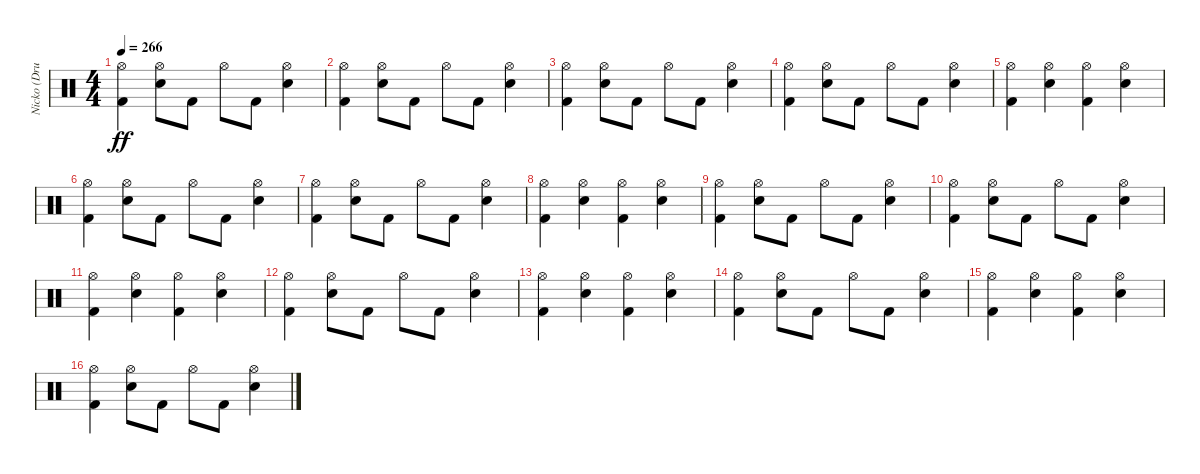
\track ("Nicko (Drums)" "Nicko (Dru") {instrument percussion}
\staff {score}
\articulation defaults
\ts (4 4)
\tempo 266
\clef neutral
\ks c
("Kick (hit) 2" "Hi-Hat (open)").4{dy ff} ("Snare (hit) 2" "Hi-Hat (open)").8 "Kick (hit) 2".8 "Hi-Hat (open)".8 "Kick (hit) 2".8 ("Snare (hit) 2" "Hi-Hat (open)").4 |
("Kick (hit) 2" "Hi-Hat (open)").4 ("Snare (hit) 2" "Hi-Hat (open)").8 "Kick (hit) 2".8 "Hi-Hat (open)".8 "Kick (hit) 2".8 ("Snare (hit) 2" "Hi-Hat (open)").4 |
("Kick (hit) 2" "Hi-Hat (open)").4 ("Snare (hit) 2" "Hi-Hat (open)").8 "Kick (hit) 2".8 "Hi-Hat (open)".8 "Kick (hit) 2".8 ("Snare (hit) 2" "Hi-Hat (open)").4 |
("Kick (hit) 2" "Hi-Hat (open)").4 ("Snare (hit) 2" "Hi-Hat (open)").8 "Kick (hit) 2".8 "Hi-Hat (open)".8 "Kick (hit) 2".8 ("Snare (hit) 2" "Hi-Hat (open)").4 |
("Kick (hit) 2" "Hi-Hat (open)").4 ("Snare (hit) 2" "Hi-Hat (open)").4 ("Kick (hit) 2" "Hi-Hat (open)").4 ("Snare (hit) 2" "Hi-Hat (open)").4 |
("Kick (hit) 2" "Hi-Hat (open)").4 ("Snare (hit) 2" "Hi-Hat (open)").8 "Kick (hit) 2".8 "Hi-Hat (open)".8 "Kick (hit) 2".8 ("Snare (hit) 2" "Hi-Hat (open)").4 |
("Kick (hit) 2" "Hi-Hat (open)").4 ("Snare (hit) 2" "Hi-Hat (open)").8 "Kick (hit) 2".8 "Hi-Hat (open)".8 "Kick (hit) 2".8 ("Snare (hit) 2" "Hi-Hat (open)").4 |
("Kick (hit) 2" "Hi-Hat (open)").4 ("Snare (hit) 2" "Hi-Hat (open)").4 ("Kick (hit) 2" "Hi-Hat (open)").4 ("Snare (hit) 2" "Hi-Hat (open)").4 |
("Kick (hit) 2" "Hi-Hat (open)").4 ("Snare (hit) 2" "Hi-Hat (open)").8 "Kick (hit) 2".8 "Hi-Hat (open)".8 "Kick (hit) 2".8 ("Snare (hit) 2" "Hi-Hat (open)").4 |
("Kick (hit) 2" "Hi-Hat (open)").4 ("Snare (hit) 2" "Hi-Hat (open)").8 "Kick (hit) 2".8 "Hi-Hat (open)".8 "Kick (hit) 2".8 ("Snare (hit) 2" "Hi-Hat (open)").4 |
("Kick (hit) 2" "Hi-Hat (open)").4 ("Snare (hit) 2" "Hi-Hat (open)").4 ("Kick (hit) 2" "Hi-Hat (open)").4 ("Snare (hit) 2" "Hi-Hat (open)").4 |
("Kick (hit) 2" "Hi-Hat (open)").4 ("Snare (hit) 2" "Hi-Hat (open)").8 "Kick (hit) 2".8 "Hi-Hat (open)".8 "Kick (hit) 2".8 ("Snare (hit) 2" "Hi-Hat (open)").4 |
("Kick (hit) 2" "Hi-Hat (open)").4 ("Snare (hit) 2" "Hi-Hat (open)").4 ("Kick (hit) 2" "Hi-Hat (open)").4 ("Snare (hit) 2" "Hi-Hat (open)").4 |
("Kick (hit) 2" "Hi-Hat (open)").4 ("Snare (hit) 2" "Hi-Hat (open)").8 "Kick (hit) 2".8 "Hi-Hat (open)".8 "Kick (hit) 2".8 ("Snare (hit) 2" "Hi-Hat (open)").4 |
("Kick (hit) 2" "Hi-Hat (open)").4 ("Snare (hit) 2" "Hi-Hat (open)").4 ("Kick (hit) 2" "Hi-Hat (open)").4 ("Snare (hit) 2" "Hi-Hat (open)").4 |
("Kick (hit) 2" "Hi-Hat (open)").4 ("Snare (hit) 2" "Hi-Hat (open)").8 "Kick (hit) 2".8 "Hi-Hat (open)".8 "Kick (hit) 2".8 ("Snare (hit) 2" "Hi-Hat (open)").4
